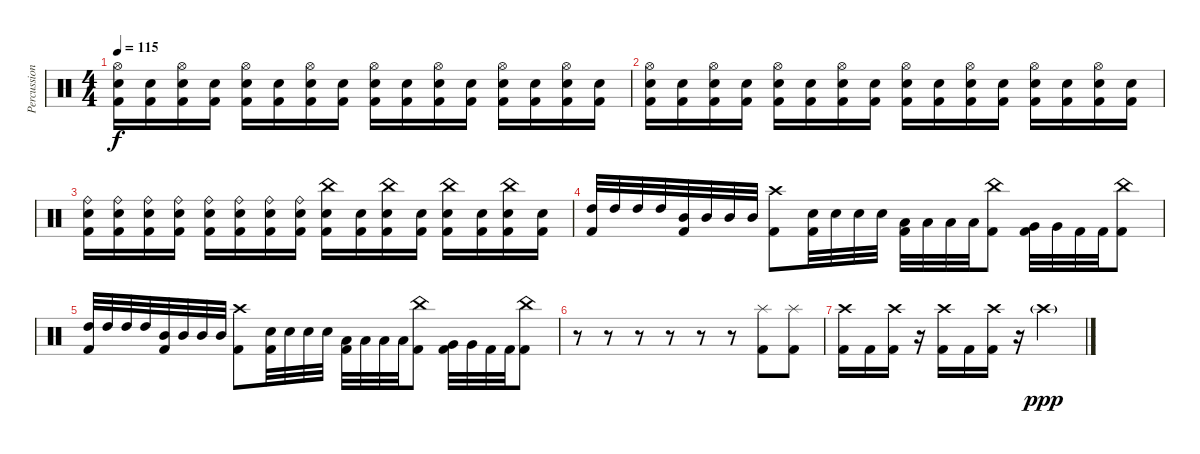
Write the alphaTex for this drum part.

\track ("Percussion" "Percussion") {instrument percussion}
\staff {score}
\articulation defaults
\ts (4 4)
\tempo 115
\clef neutral
\ks c
("Hi-Hat (open)" "Snare (hit) 2" "Kick (hit) 2").16{dy f} ("Snare (hit) 2" "Kick (hit) 2").16 ("Hi-Hat (open)" "Snare (hit) 2" "Kick (hit) 2").16 ("Snare (hit) 2" "Kick (hit) 2").16 ("Hi-Hat (open)" "Snare (hit) 2" "Kick (hit) 2").16 ("Snare (hit) 2" "Kick (hit) 2").16 ("Hi-Hat (open)" "Snare (hit) 2" "Kick (hit) 2").16 ("Snare (hit) 2" "Kick (hit) 2").16 ("Hi-Hat (open)" "Snare (hit) 2" "Kick (hit) 2").16 ("Snare (hit) 2" "Kick (hit) 2").16 ("Hi-Hat (open)" "Snare (hit) 2" "Kick (hit) 2").16 ("Snare (hit) 2" "Kick (hit) 2").16 ("Hi-Hat (open)" "Snare (hit) 2" "Kick (hit) 2").16 ("Snare (hit) 2" "Kick (hit) 2").16 ("Hi-Hat (open)" "Snare (hit) 2" "Kick (hit) 2").16 ("Snare (hit) 2" "Kick (hit) 2").16 |
("Hi-Hat (open)" "Snare (hit) 2" "Kick (hit) 2").16 ("Snare (hit) 2" "Kick (hit) 2").16 ("Hi-Hat (open)" "Snare (hit) 2" "Kick (hit) 2").16 ("Snare (hit) 2" "Kick (hit) 2").16 ("Hi-Hat (open)" "Snare (hit) 2" "Kick (hit) 2").16 ("Snare (hit) 2" "Kick (hit) 2").16 ("Hi-Hat (open)" "Snare (hit) 2" "Kick (hit) 2").16 ("Snare (hit) 2" "Kick (hit) 2").16 ("Hi-Hat (open)" "Snare (hit) 2" "Kick (hit) 2").16 ("Snare (hit) 2" "Kick (hit) 2").16 ("Hi-Hat (open)" "Snare (hit) 2" "Kick (hit) 2").16 ("Snare (hit) 2" "Kick (hit) 2").16 ("Hi-Hat (open)" "Snare (hit) 2" "Kick (hit) 2").16 ("Snare (hit) 2" "Kick (hit) 2").16 ("Hi-Hat (open)" "Snare (hit) 2" "Kick (hit) 2").16 ("Snare (hit) 2" "Kick (hit) 2").16 |
("Ride (bell)" "Snare (hit) 2" "Kick (hit) 2").16 ("Ride (bell)" "Snare (hit) 2" "Kick (hit) 2").16 ("Ride (bell)" "Snare (hit) 2" "Kick (hit) 2").16 ("Ride (bell)" "Snare (hit) 2" "Kick (hit) 2").16 ("Ride (bell)" "Snare (hit) 2" "Kick (hit) 2").16 ("Ride (bell)" "Snare (hit) 2" "Kick (hit) 2").16 ("Ride (bell)" "Snare (hit) 2" "Kick (hit) 2").16 ("Ride (bell)" "Snare (hit) 2" "Kick (hit) 2").16 ("China (hit)" "Snare (hit) 2" "Kick (hit) 2").16 ("Snare (hit) 2" "Kick (hit) 2").16 ("China (hit)" "Snare (hit) 2" "Kick (hit) 2").16 ("Snare (hit) 2" "Kick (hit) 2").16 ("China (hit)" "Snare (hit) 2" "Kick (hit) 2").16 ("Snare (hit) 2" "Kick (hit) 2").16 ("China (hit)" "Snare (hit) 2" "Kick (hit) 2").16 ("Snare (hit) 2" "Kick (hit) 2").16 |
("High Tom (hit)" "Kick (hit) 2").32 "High Tom (hit)".32 "High Tom (hit)".32 "High Tom (hit)".32 ("Mid Tom (hit)" "Kick (hit) 2").32 "Mid Tom (hit)".32 "Mid Tom (hit)".32 "Mid Tom (hit)".32 ("Crash high (hit)" "Kick (hit) 2").8 ("Snare (hit) 2" "Kick (hit) 2").32 "Snare (hit) 2".32 "Snare (hit) 2".32 "Snare (hit) 2".32 ("Low Tom (hit)" "Kick (hit) 2").32 "Low Tom (hit)".32 "Low Tom (hit)".32 "Low Tom (hit)".32 ("China (hit)" "Kick (hit) 2").8 ("Very Low Tom (hit)" "Kick (hit) 2").32 "Very Low Tom (hit)".32 "Kick (hit) 2".32 "Kick (hit) 2".32 ("China (hit)" "Kick (hit) 2").8 |
("High Tom (hit)" "Kick (hit) 2").32 "High Tom (hit)".32 "High Tom (hit)".32 "High Tom (hit)".32 ("Mid Tom (hit)" "Kick (hit) 2").32 "Mid Tom (hit)".32 "Mid Tom (hit)".32 "Mid Tom (hit)".32 ("Crash high (hit)" "Kick (hit) 2").8 ("Snare (hit) 2" "Kick (hit) 2").32 "Snare (hit) 2".32 "Snare (hit) 2".32 "Snare (hit) 2".32 ("Low Tom (hit)" "Kick (hit) 2").32 "Low Tom (hit)".32 "Low Tom (hit)".32 "Low Tom (hit)".32 ("China (hit)" "Kick (hit) 2").8 ("Very Low Tom (hit)" "Kick (hit) 2").32 "Very Low Tom (hit)".32 "Kick (hit) 2".32 "Kick (hit) 2".32 ("China (hit)" "Kick (hit) 2").8 |
r.8 r.8 r.8 r.8 r.8 r.8 ("Splash (hit)" "Kick (hit) 2").8 ("Splash (hit)" "Kick (hit) 2").8 |
("Crash high (hit)" "Kick (hit) 2").16 "Kick (hit) 2".16 ("Crash high (hit)" "Kick (hit) 2").16 r.16 ("Crash high (hit)" "Kick (hit) 2").16 "Kick (hit) 2".16 ("Crash high (hit)" "Kick (hit) 2").16 r.16 "Crash high (hit)"{g}.2{dy ppp}
